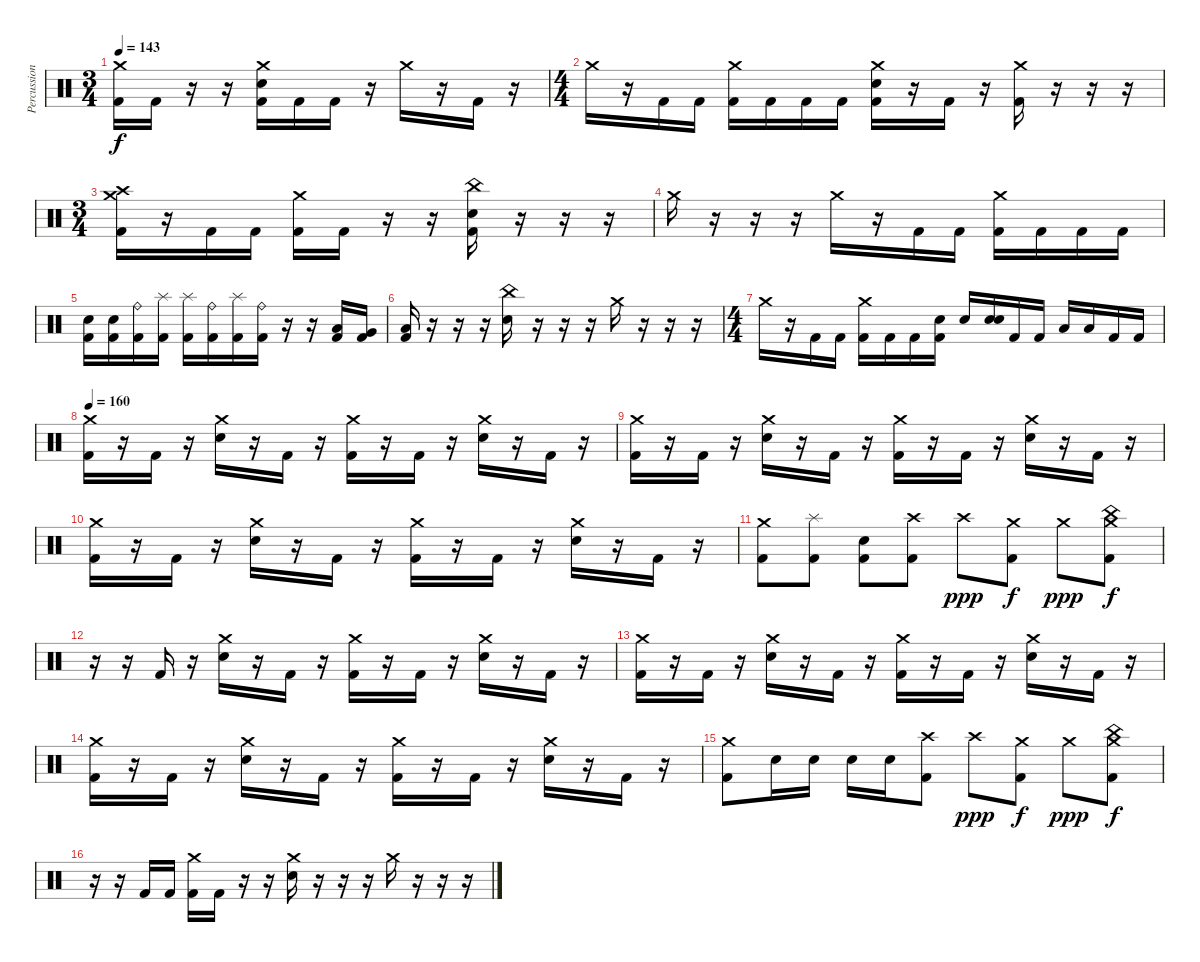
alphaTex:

\track ("Percussion" "Percussion") {instrument percussion}
\staff {score}
\articulation defaults
\ts (3 4)
\tempo 143
\clef neutral
\ks c
("Crash medium (hit)" "Kick (hit) 2").16{dy f} "Kick (hit) 2".16 r.16 r.16 ("Crash medium (hit)" "Electric Snare (hit)" "Kick (hit) 2").16 "Kick (hit) 2".16 "Kick (hit) 2".16 r.16 "Crash medium (hit)".16 r.16 "Kick (hit) 2".16 r.16 |
\ts (4 4)
"Crash medium (hit)".16 r.16 "Kick (hit) 2".16 "Kick (hit) 2".16 ("Crash medium (hit)" "Kick (hit) 2").16 "Kick (hit) 2".16 "Kick (hit) 2".16 "Kick (hit) 2".16 ("Crash medium (hit)" "Electric Snare (hit)" "Kick (hit) 2").16 r.16 "Kick (hit) 2".16 r.16 ("Crash medium (hit)" "Kick (hit) 2").16 r.16 r.16 r.16 |
\ts (3 4)
("Crash medium (hit)" "Crash high (hit)" "Kick (hit) 2").16 r.16 "Kick (hit) 2".16 "Kick (hit) 2".16 ("Crash medium (hit)" "Kick (hit) 2").16 "Kick (hit) 2".16 r.16 r.16 ("China (hit)" "Electric Snare (hit)" "Kick (hit) 2").16 r.16 r.16 r.16 |
"Crash medium (hit)".16 r.16 r.16 r.16 "Crash medium (hit)".16 r.16 "Kick (hit) 2".16 "Kick (hit) 2".16 ("Crash medium (hit)" "Kick (hit) 2").16 "Kick (hit) 2".16 "Kick (hit) 2".16 "Kick (hit) 2".16 |
("Electric Snare (hit)" "Kick (hit) 2").16 ("Electric Snare (hit)" "Kick (hit) 2").16 ("Ride (bell)" "Kick (hit) 2").16 ("Splash (hit)" "Kick (hit) 2").16 ("Splash (hit)" "Kick (hit) 2").16 ("Ride (bell)" "Kick (hit) 2").16 ("Splash (hit)" "Kick (hit) 2").16 ("Ride (bell)" "Kick (hit) 2").16 r.16 r.16 ("Low Tom (hit)" "Kick (hit) 2").16 ("Very Low Tom (hit)" "Kick (hit) 2").16 |
("Low Tom (hit)" "Kick (hit) 2").16 r.16 r.16 r.16 ("China (hit)" "Electric Snare (hit)").16 r.16 r.16 r.16 "Crash medium (hit)".16 r.16 r.16 r.16 |
\ts (4 4)
"Crash medium (hit)".16 r.16 "Kick (hit) 2".16 "Kick (hit) 2".16 ("Crash medium (hit)" "Kick (hit) 2").16 "Kick (hit) 2".16 "Kick (hit) 2".16 ("Snare (hit)" "Kick (hit) 2").16 "Electric Snare (hit)".16 ("Snare (hit)" "Electric Snare (hit)").16 "Kick (hit) 2".16 "Kick (hit) 2".16 "Low Tom (hit)".16 "Low Tom (hit)".16 "Kick (hit) 2".16 "Kick (hit) 2".16 |
\tempo 160
("Crash medium (hit)" "Kick (hit) 2").16 r.16 "Kick (hit) 2".16 r.16 ("Crash medium (hit)" "Electric Snare (hit)").16 r.16 "Kick (hit) 2".16 r.16 ("Crash medium (hit)" "Kick (hit) 2").16 r.16 "Kick (hit) 2".16 r.16 ("Crash medium (hit)" "Electric Snare (hit)").16 r.16 "Kick (hit) 2".16 r.16 |
("Crash medium (hit)" "Kick (hit) 2").16 r.16 "Kick (hit) 2".16 r.16 ("Crash medium (hit)" "Electric Snare (hit)").16 r.16 "Kick (hit) 2".16 r.16 ("Crash medium (hit)" "Kick (hit) 2").16 r.16 "Kick (hit) 2".16 r.16 ("Crash medium (hit)" "Electric Snare (hit)").16 r.16 "Kick (hit) 2".16 r.16 |
("Crash medium (hit)" "Kick (hit) 2").16 r.16 "Kick (hit) 2".16 r.16 ("Crash medium (hit)" "Electric Snare (hit)").16 r.16 "Kick (hit) 2".16 r.16 ("Crash medium (hit)" "Kick (hit) 2").16 r.16 "Kick (hit) 2".16 r.16 ("Crash medium (hit)" "Electric Snare (hit)").16 r.16 "Kick (hit) 2".16 r.16 |
("Crash medium (hit)" "Kick (hit) 2").8 ("Splash (hit)" "Kick (hit) 2").8 ("Electric Snare (hit)" "Kick (hit) 2").8 ("Crash high (hit)" "Kick (hit) 2").8 "Crash high (hit)".8{dy ppp} ("Crash medium (hit)" "Kick (hit) 2").8{dy f} "Crash medium (hit)".8{dy ppp} ("China (hit)" "Crash medium (hit)" "Kick (hit) 2").8{dy f} |
r.16 r.16 "Kick (hit) 2".16 r.16 ("Crash medium (hit)" "Electric Snare (hit)").16 r.16 "Kick (hit) 2".16 r.16 ("Crash medium (hit)" "Kick (hit) 2").16 r.16 "Kick (hit) 2".16 r.16 ("Crash medium (hit)" "Electric Snare (hit)").16 r.16 "Kick (hit) 2".16 r.16 |
("Crash medium (hit)" "Kick (hit) 2").16 r.16 "Kick (hit) 2".16 r.16 ("Crash medium (hit)" "Electric Snare (hit)").16 r.16 "Kick (hit) 2".16 r.16 ("Crash medium (hit)" "Kick (hit) 2").16 r.16 "Kick (hit) 2".16 r.16 ("Crash medium (hit)" "Electric Snare (hit)").16 r.16 "Kick (hit) 2".16 r.16 |
("Crash medium (hit)" "Kick (hit) 2").16 r.16 "Kick (hit) 2".16 r.16 ("Crash medium (hit)" "Electric Snare (hit)").16 r.16 "Kick (hit) 2".16 r.16 ("Crash medium (hit)" "Kick (hit) 2").16 r.16 "Kick (hit) 2".16 r.16 ("Crash medium (hit)" "Electric Snare (hit)").16 r.16 "Kick (hit) 2".16 r.16 |
("Crash medium (hit)" "Kick (hit) 2").8 "Electric Snare (hit)".16 "Electric Snare (hit)".16 "Electric Snare (hit)".16 "Electric Snare (hit)".16 ("Crash high (hit)" "Kick (hit) 2").8 "Crash high (hit)".8{dy ppp} ("Crash medium (hit)" "Kick (hit) 2").8{dy f} "Crash medium (hit)".8{dy ppp} ("China (hit)" "Crash medium (hit)" "Kick (hit) 2").8{dy f} |
r.16 r.16 "Kick (hit) 2".16 "Kick (hit) 2".16 ("Crash medium (hit)" "Kick (hit) 2").16 "Kick (hit) 2".16 r.16 r.16 ("Crash medium (hit)" "Electric Snare (hit)").16 r.16 r.16 r.16 "Crash medium (hit)".16 r.16 r.16 r.16
